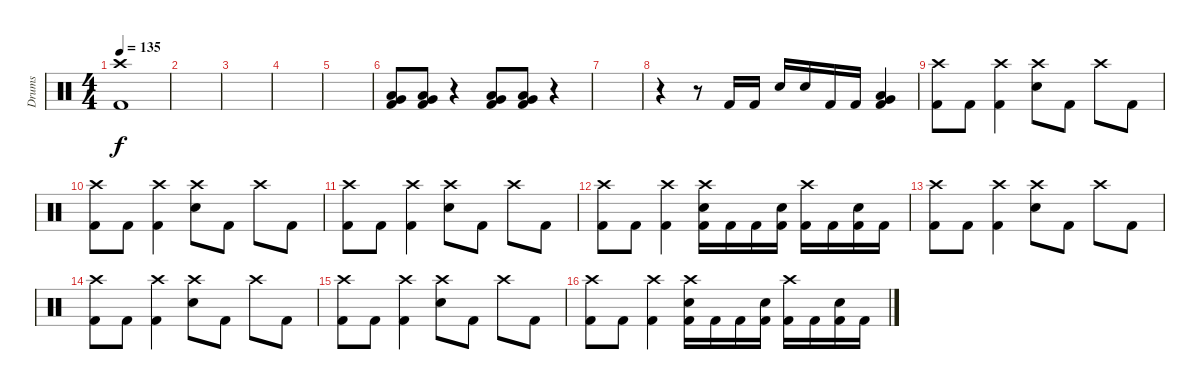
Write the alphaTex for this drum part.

\track ("Drums" "Drums") {instrument percussion}
\staff {score}
\articulation defaults
\ts (4 4)
\tempo 135
\clef neutral
\ks c
("Crash high (hit)" "Kick (hit) 2").1{dy f} |
|
|
|
|
("Kick (hit) 2" "Very Low Tom (hit)" "Low Floor Tom (hit)").8 ("Kick (hit) 2" "Very Low Tom (hit)" "Low Floor Tom (hit)").8 r.4 ("Kick (hit) 2" "Very Low Tom (hit)" "Low Floor Tom (hit)").8 ("Kick (hit) 2" "Very Low Tom (hit)" "Low Floor Tom (hit)").8 r.4 |
|
r.4 r.8 "Kick (hit) 2".16 "Kick (hit) 2".16 "Electric Snare (hit)".16 "Electric Snare (hit)".16 "Kick (hit) 2".16 "Kick (hit) 2".16 ("Very Low Tom (hit)" "Low Floor Tom (hit)" "Kick (hit) 2").4 |
("Crash high (hit)" "Kick (hit) 2").8 "Kick (hit) 2".8 ("Crash high (hit)" "Kick (hit) 2").4 ("Crash high (hit)" "Electric Snare (hit)").8 "Kick (hit) 2".8 "Crash high (hit)".8 "Kick (hit) 2".8 |
("Crash high (hit)" "Kick (hit) 2").8 "Kick (hit) 2".8 ("Crash high (hit)" "Kick (hit) 2").4 ("Crash high (hit)" "Electric Snare (hit)").8 "Kick (hit) 2".8 "Crash high (hit)".8 "Kick (hit) 2".8 |
("Crash high (hit)" "Kick (hit) 2").8 "Kick (hit) 2".8 ("Crash high (hit)" "Kick (hit) 2").4 ("Crash high (hit)" "Electric Snare (hit)").8 "Kick (hit) 2".8 "Crash high (hit)".8 "Kick (hit) 2".8 |
("Crash high (hit)" "Kick (hit) 2").8 "Kick (hit) 2".8 ("Crash high (hit)" "Kick (hit) 2").4 ("Crash high (hit)" "Kick (hit) 2" "Electric Snare (hit)").16 "Kick (hit) 2".16 "Kick (hit) 2".16 ("Kick (hit) 2" "Electric Snare (hit)").16 ("Crash high (hit)" "Kick (hit) 2").16 "Kick (hit) 2".16 ("Kick (hit) 2" "Electric Snare (hit)").16 "Kick (hit) 2".16 |
("Crash high (hit)" "Kick (hit) 2").8 "Kick (hit) 2".8 ("Crash high (hit)" "Kick (hit) 2").4 ("Crash high (hit)" "Electric Snare (hit)").8 "Kick (hit) 2".8 "Crash high (hit)".8 "Kick (hit) 2".8 |
("Crash high (hit)" "Kick (hit) 2").8 "Kick (hit) 2".8 ("Crash high (hit)" "Kick (hit) 2").4 ("Crash high (hit)" "Electric Snare (hit)").8 "Kick (hit) 2".8 "Crash high (hit)".8 "Kick (hit) 2".8 |
("Crash high (hit)" "Kick (hit) 2").8 "Kick (hit) 2".8 ("Crash high (hit)" "Kick (hit) 2").4 ("Crash high (hit)" "Electric Snare (hit)").8 "Kick (hit) 2".8 "Crash high (hit)".8 "Kick (hit) 2".8 |
("Crash high (hit)" "Kick (hit) 2").8 "Kick (hit) 2".8 ("Crash high (hit)" "Kick (hit) 2").4 ("Crash high (hit)" "Kick (hit) 2" "Electric Snare (hit)").16 "Kick (hit) 2".16 "Kick (hit) 2".16 ("Kick (hit) 2" "Electric Snare (hit)").16 ("Crash high (hit)" "Kick (hit) 2").16 "Kick (hit) 2".16 ("Kick (hit) 2" "Electric Snare (hit)").16 "Kick (hit) 2".16
